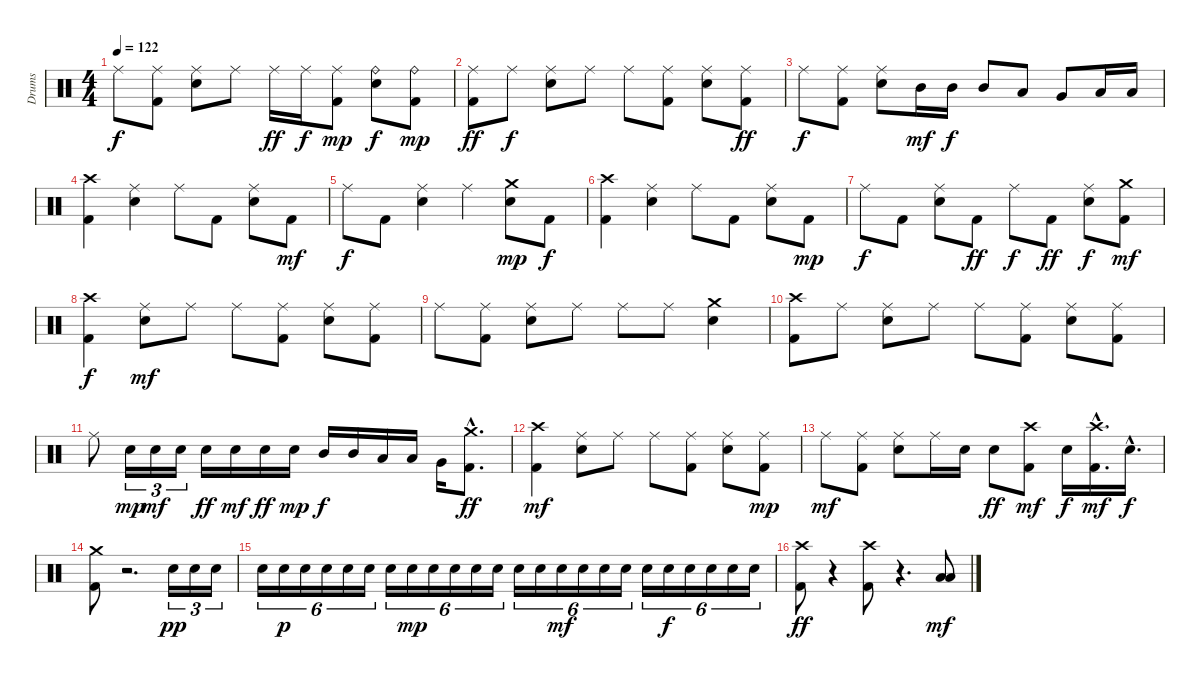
\track ("Drums" "Drums") {instrument percussion}
\staff {score}
\articulation defaults
\ts (4 4)
\tempo 122
\clef neutral
\ks c "Ride (middle)".8{dy f}
("Ride (middle)" "Kick (hit) 2").8 ("Ride (middle)" "Snare (hit) 2").8 "Ride (middle)".8 "Ride (middle)".16{dy ff} "Ride (middle)".16{dy f} ("Ride (middle)" "Kick (hit) 2").8{dy mp} ("Ride (bell)" "Snare (hit) 2").8{dy f} ("Ride (bell)" "Kick (hit) 2").8{dy mp} |
("Ride (middle)" "Kick (hit) 2").8{dy ff} "Ride (middle)".8{dy f} ("Ride (middle)" "Snare (hit) 2").8 "Ride (middle)".8 "Ride (middle)".8 ("Ride (middle)" "Kick (hit) 2").8 ("Ride (middle)" "Snare (hit) 2").8 ("Ride (middle)" "Kick (hit) 2").8{dy ff} |
"Ride (middle)".8{dy f} ("Ride (middle)" "Kick (hit) 2").8 ("Ride (middle)" "Snare (hit) 2").8 "Mid Tom (hit)".16{dy mf} "Mid Tom (hit)".16{dy f} "Mid Tom (hit)".8 "Low Tom (hit)".8 "Very Low Tom (hit)".8 "Low Floor Tom (hit)".16 "Low Floor Tom (hit)".16 |
("Crash high (hit)" "Kick (hit) 2").4 ("Ride (middle)" "Snare (hit) 2").4 "Ride (middle)".8 "Kick (hit) 2".8 ("Ride (middle)" "Snare (hit) 2").8 "Kick (hit) 2".8{dy mf} |
"Ride (middle)".8{dy f} "Kick (hit) 2".8 ("Ride (middle)" "Snare (hit) 2").4 "Ride (middle)".4 ("Crash medium (hit)" "Snare (hit) 2").8{dy mp} "Kick (hit) 2".8{dy f} |
("Crash high (hit)" "Kick (hit) 2").4 ("Ride (middle)" "Snare (hit) 2").4 "Ride (middle)".8 "Kick (hit) 2".8 ("Ride (middle)" "Snare (hit) 2").8 "Kick (hit) 2".8{dy mp} |
"Ride (middle)".8{dy f} "Kick (hit) 2".8 ("Ride (middle)" "Snare (hit) 2").8 "Kick (hit) 2".8{dy ff} "Ride (middle)".8{dy f} "Kick (hit) 2".8{dy ff} ("Ride (middle)" "Snare (hit) 2").8{dy f} ("Crash medium (hit)" "Kick (hit) 2").8{dy mf} |
("Crash high (hit)" "Kick (hit) 2").4{dy f} ("Ride (middle)" "Snare (hit) 2").8{dy mf} "Ride (middle)".8 "Ride (middle)".8 ("Ride (middle)" "Kick (hit) 2").8 ("Ride (middle)" "Snare (hit) 2").8 ("Ride (middle)" "Kick (hit) 2").8 |
"Ride (middle)".8 ("Ride (middle)" "Kick (hit) 2").8 ("Ride (middle)" "Snare (hit) 2").8 "Ride (middle)".8 "Ride (middle)".8 "Ride (middle)".8 ("Crash medium (hit)" "Snare (hit) 2").4 |
("Kick (hit) 2" "Crash high (hit)").8 "Ride (middle)".8 ("Ride (middle)" "Snare (hit) 2").8 "Ride (middle)".8 "Ride (middle)".8 ("Ride (middle)" "Kick (hit) 2").8 ("Ride (middle)" "Snare (hit) 2").8 ("Ride (middle)" "Kick (hit) 2").8 |
"Ride (middle)".8 "Snare (hit) 2".16{tu (3 2) dy mp} "Snare (hit) 2".16{tu (3 2) dy mf} "Snare (hit) 2".16{tu (3 2)} "Snare (hit) 2".16{dy ff} "Snare (hit) 2".16{dy mf} "Snare (hit) 2".16{dy ff} "Snare (hit) 2".16{dy mp} "Mid Tom (hit)".16{dy f} "Mid Tom (hit)".16 "Low Tom (hit)".16 "Low Tom (hit)".16 "Very Low Tom (hit)".16 ("Crash medium (hit)"{hac} "Kick (hit) 2"{hac}).8{d dy ff} |
("Crash high (hit)" "Kick (hit) 2").4{dy mf} ("Ride (middle)" "Snare (hit) 2").8 "Ride (middle)".8 "Ride (middle)".8 ("Ride (middle)" "Kick (hit) 2").8 ("Ride (middle)" "Snare (hit) 2").8 ("Ride (middle)" "Kick (hit) 2").8{dy mp} |
"Ride (middle)".8{dy mf} ("Ride (middle)" "Kick (hit) 2").8 ("Ride (middle)" "Snare (hit) 2").8 "Ride (middle)".16 "Snare (hit) 2".16 "Snare (hit) 2".8{dy ff} ("Crash high (hit)" "Kick (hit) 2").8{dy mf} "Snare (hit) 2".16{dy f} ("Crash high (hit)"{hac} "Kick (hit) 2"{hac}).16{d dy mf} "Snare (hit) 2"{hac}.16{d dy f} |
("Crash medium (hit)" "Kick (hit) 2").8 r.2{d} "Snare (hit) 2".16{tu (3 2) dy pp} "Snare (hit) 2".16{tu (3 2)} "Snare (hit) 2".16{tu (3 2)} |
"Snare (hit) 2".16{tu (6 4)} "Snare (hit) 2".16{tu (6 4) dy p} "Snare (hit) 2".16{tu (6 4)} "Snare (hit) 2".16{tu (6 4)} "Snare (hit) 2".16{tu (6 4)} "Snare (hit) 2".16{tu (6 4)} "Snare (hit) 2".16{tu (6 4)} "Snare (hit) 2".16{tu (6 4) dy mp} "Snare (hit) 2".16{tu (6 4)} "Snare (hit) 2".16{tu (6 4)} "Snare (hit) 2".16{tu (6 4)} "Snare (hit) 2".16{tu (6 4)} "Snare (hit) 2".16{tu (6 4)} "Snare (hit) 2".16{tu (6 4)} "Snare (hit) 2".16{tu (6 4) dy mf} "Snare (hit) 2".16{tu (6 4)} "Snare (hit) 2".16{tu (6 4)} "Snare (hit) 2".16{tu (6 4)} "Snare (hit) 2".16{tu (6 4)} "Snare (hit) 2".16{tu (6 4) dy f} "Snare (hit) 2".16{tu (6 4)} "Snare (hit) 2".16{tu (6 4)} "Snare (hit) 2".16{tu (6 4)} "Snare (hit) 2".16{tu (6 4)} |
("Crash high (hit)" "Kick (hit) 2").8{dy ff} r.4 ("Crash high (hit)" "Kick (hit) 2").8 r.4{d} ("Low Floor Tom (hit)" "Low Tom (hit)").8{dy mf}
